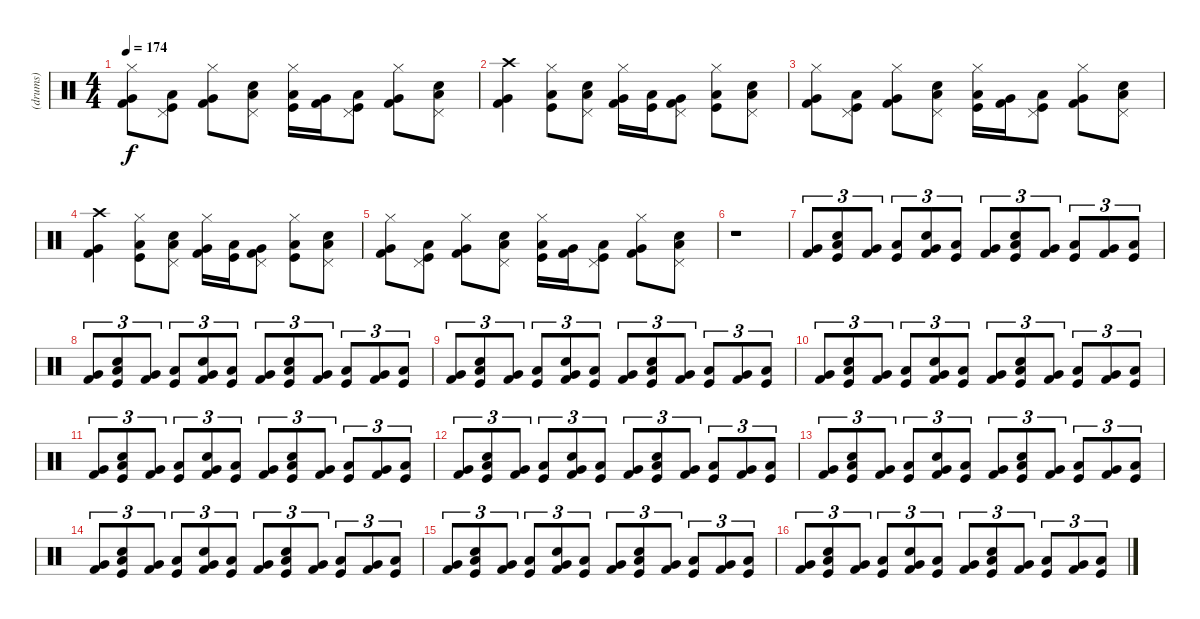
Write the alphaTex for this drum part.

\track ("(drums)" "(drums)") {instrument percussion}
\staff {score}
\articulation defaults
\ts (4 4)
\tempo 174
\clef neutral
\ks c
("Hi-Hat (closed)" "Kick (hit) 2" "Very Low Tom (hit)").8{dy f} ("Pedal Hi-Hat (hit)" "Kick (hit)" "Low Tom (hit)").8 ("Hi-Hat (closed)" "Kick (hit) 2" "Very Low Tom (hit)").8 ("Pedal Hi-Hat (hit)" "Snare (hit) 2" "Low Floor Tom (hit)").8 ("Hi-Hat (closed)" "Kick (hit)" "Low Tom (hit)").16 ("Kick (hit) 2" "Very Low Tom (hit)").16 ("Pedal Hi-Hat (hit)" "Kick (hit)" "Low Tom (hit)").8 ("Hi-Hat (closed)" "Kick (hit) 2" "Very Low Tom (hit)").8 ("Pedal Hi-Hat (hit)" "Snare (hit) 2" "Low Floor Tom (hit)").8 |
("Crash high (hit)" "Kick (hit) 2" "Very Low Tom (hit)").4 ("Hi-Hat (closed)" "Kick (hit)" "Low Tom (hit)").8 ("Pedal Hi-Hat (hit)" "Snare (hit) 2" "Low Floor Tom (hit)").8 ("Hi-Hat (closed)" "Kick (hit) 2" "Very Low Tom (hit)").16 ("Kick (hit)" "Low Tom (hit)").16 ("Pedal Hi-Hat (hit)" "Kick (hit) 2" "Very Low Tom (hit)").8 ("Hi-Hat (closed)" "Kick (hit)" "Low Tom (hit)").8 ("Pedal Hi-Hat (hit)" "Snare (hit) 2" "Low Floor Tom (hit)").8 |
("Hi-Hat (closed)" "Kick (hit) 2" "Very Low Tom (hit)").8 ("Pedal Hi-Hat (hit)" "Kick (hit)" "Low Tom (hit)").8 ("Hi-Hat (closed)" "Kick (hit) 2" "Very Low Tom (hit)").8 ("Pedal Hi-Hat (hit)" "Snare (hit) 2" "Low Floor Tom (hit)").8 ("Hi-Hat (closed)" "Kick (hit)" "Low Tom (hit)").16 ("Kick (hit) 2" "Very Low Tom (hit)").16 ("Pedal Hi-Hat (hit)" "Kick (hit)" "Low Tom (hit)").8 ("Hi-Hat (closed)" "Kick (hit) 2" "Very Low Tom (hit)").8 ("Pedal Hi-Hat (hit)" "Snare (hit) 2" "Low Floor Tom (hit)").8 |
("Crash high (hit)" "Kick (hit) 2" "Very Low Tom (hit)").4 ("Hi-Hat (closed)" "Kick (hit)" "Low Tom (hit)").8 ("Pedal Hi-Hat (hit)" "Snare (hit) 2" "Low Floor Tom (hit)").8 ("Hi-Hat (closed)" "Kick (hit) 2" "Very Low Tom (hit)").16 ("Kick (hit)" "Low Tom (hit)").16 ("Pedal Hi-Hat (hit)" "Kick (hit) 2" "Very Low Tom (hit)").8 ("Hi-Hat (closed)" "Kick (hit)" "Low Tom (hit)").8 ("Pedal Hi-Hat (hit)" "Snare (hit) 2" "Low Floor Tom (hit)").8 |
("Hi-Hat (closed)" "Kick (hit) 2" "Very Low Tom (hit)").8 ("Pedal Hi-Hat (hit)" "Kick (hit)" "Low Tom (hit)").8 ("Hi-Hat (closed)" "Kick (hit) 2" "Very Low Tom (hit)").8 ("Pedal Hi-Hat (hit)" "Snare (hit) 2" "Low Floor Tom (hit)").8 ("Hi-Hat (closed)" "Kick (hit)" "Low Tom (hit)").16 ("Kick (hit) 2" "Very Low Tom (hit)").16 ("Pedal Hi-Hat (hit)" "Kick (hit)" "Low Tom (hit)").8 ("Hi-Hat (closed)" "Kick (hit) 2" "Very Low Tom (hit)").8 ("Pedal Hi-Hat (hit)" "Snare (hit) 2" "Low Floor Tom (hit)").8 |
r.1 |
("Kick (hit) 2" "Very Low Tom (hit)").8{tu (3 2)} ("Electric Snare (hit)" "Kick (hit)" "Low Tom (hit)").8{tu (3 2)} ("Kick (hit) 2" "Very Low Tom (hit)").8{tu (3 2)} ("Kick (hit)" "Low Tom (hit)").8{tu (3 2)} ("Electric Snare (hit)" "Kick (hit) 2" "Very Low Tom (hit)").8{tu (3 2)} ("Kick (hit)" "Low Tom (hit)").8{tu (3 2)} ("Kick (hit) 2" "Very Low Tom (hit)").8{tu (3 2)} ("Electric Snare (hit)" "Kick (hit)" "Low Tom (hit)").8{tu (3 2)} ("Kick (hit) 2" "Very Low Tom (hit)").8{tu (3 2)} ("Kick (hit)" "Low Tom (hit)").8{tu (3 2)} ("Kick (hit) 2" "Very Low Tom (hit)").8{tu (3 2)} ("Kick (hit)" "Low Tom (hit)").8{tu (3 2)} |
("Kick (hit) 2" "Very Low Tom (hit)").8{tu (3 2)} ("Electric Snare (hit)" "Kick (hit)" "Low Tom (hit)").8{tu (3 2)} ("Kick (hit) 2" "Very Low Tom (hit)").8{tu (3 2)} ("Kick (hit)" "Low Tom (hit)").8{tu (3 2)} ("Electric Snare (hit)" "Kick (hit) 2" "Very Low Tom (hit)").8{tu (3 2)} ("Kick (hit)" "Low Tom (hit)").8{tu (3 2)} ("Kick (hit) 2" "Very Low Tom (hit)").8{tu (3 2)} ("Electric Snare (hit)" "Kick (hit)" "Low Tom (hit)").8{tu (3 2)} ("Kick (hit) 2" "Very Low Tom (hit)").8{tu (3 2)} ("Kick (hit)" "Low Tom (hit)").8{tu (3 2)} ("Kick (hit) 2" "Very Low Tom (hit)").8{tu (3 2)} ("Kick (hit)" "Low Tom (hit)").8{tu (3 2)} |
("Kick (hit) 2" "Very Low Tom (hit)").8{tu (3 2)} ("Electric Snare (hit)" "Kick (hit)" "Low Tom (hit)").8{tu (3 2)} ("Kick (hit) 2" "Very Low Tom (hit)").8{tu (3 2)} ("Kick (hit)" "Low Tom (hit)").8{tu (3 2)} ("Electric Snare (hit)" "Kick (hit) 2" "Very Low Tom (hit)").8{tu (3 2)} ("Kick (hit)" "Low Tom (hit)").8{tu (3 2)} ("Kick (hit) 2" "Very Low Tom (hit)").8{tu (3 2)} ("Electric Snare (hit)" "Kick (hit)" "Low Tom (hit)").8{tu (3 2)} ("Kick (hit) 2" "Very Low Tom (hit)").8{tu (3 2)} ("Kick (hit)" "Low Tom (hit)").8{tu (3 2)} ("Kick (hit) 2" "Very Low Tom (hit)").8{tu (3 2)} ("Kick (hit)" "Low Tom (hit)").8{tu (3 2)} |
("Kick (hit) 2" "Very Low Tom (hit)").8{tu (3 2)} ("Electric Snare (hit)" "Kick (hit)" "Low Tom (hit)").8{tu (3 2)} ("Kick (hit) 2" "Very Low Tom (hit)").8{tu (3 2)} ("Kick (hit)" "Low Tom (hit)").8{tu (3 2)} ("Electric Snare (hit)" "Kick (hit) 2" "Very Low Tom (hit)").8{tu (3 2)} ("Kick (hit)" "Low Tom (hit)").8{tu (3 2)} ("Kick (hit) 2" "Very Low Tom (hit)").8{tu (3 2)} ("Electric Snare (hit)" "Kick (hit)" "Low Tom (hit)").8{tu (3 2)} ("Kick (hit) 2" "Very Low Tom (hit)").8{tu (3 2)} ("Kick (hit)" "Low Tom (hit)").8{tu (3 2)} ("Kick (hit) 2" "Very Low Tom (hit)").8{tu (3 2)} ("Kick (hit)" "Low Tom (hit)").8{tu (3 2)} |
("Kick (hit) 2" "Very Low Tom (hit)").8{tu (3 2)} ("Electric Snare (hit)" "Kick (hit)" "Low Tom (hit)").8{tu (3 2)} ("Kick (hit) 2" "Very Low Tom (hit)").8{tu (3 2)} ("Kick (hit)" "Low Tom (hit)").8{tu (3 2)} ("Electric Snare (hit)" "Kick (hit) 2" "Very Low Tom (hit)").8{tu (3 2)} ("Kick (hit)" "Low Tom (hit)").8{tu (3 2)} ("Kick (hit) 2" "Very Low Tom (hit)").8{tu (3 2)} ("Electric Snare (hit)" "Kick (hit)" "Low Tom (hit)").8{tu (3 2)} ("Kick (hit) 2" "Very Low Tom (hit)").8{tu (3 2)} ("Kick (hit)" "Low Tom (hit)").8{tu (3 2)} ("Kick (hit) 2" "Very Low Tom (hit)").8{tu (3 2)} ("Kick (hit)" "Low Tom (hit)").8{tu (3 2)} |
("Kick (hit) 2" "Very Low Tom (hit)").8{tu (3 2)} ("Electric Snare (hit)" "Kick (hit)" "Low Tom (hit)").8{tu (3 2)} ("Kick (hit) 2" "Very Low Tom (hit)").8{tu (3 2)} ("Kick (hit)" "Low Tom (hit)").8{tu (3 2)} ("Electric Snare (hit)" "Kick (hit) 2" "Very Low Tom (hit)").8{tu (3 2)} ("Kick (hit)" "Low Tom (hit)").8{tu (3 2)} ("Kick (hit) 2" "Very Low Tom (hit)").8{tu (3 2)} ("Electric Snare (hit)" "Kick (hit)" "Low Tom (hit)").8{tu (3 2)} ("Kick (hit) 2" "Very Low Tom (hit)").8{tu (3 2)} ("Kick (hit)" "Low Tom (hit)").8{tu (3 2)} ("Kick (hit) 2" "Very Low Tom (hit)").8{tu (3 2)} ("Kick (hit)" "Low Tom (hit)").8{tu (3 2)} |
("Kick (hit) 2" "Very Low Tom (hit)").8{tu (3 2)} ("Electric Snare (hit)" "Kick (hit)" "Low Tom (hit)").8{tu (3 2)} ("Kick (hit) 2" "Very Low Tom (hit)").8{tu (3 2)} ("Kick (hit)" "Low Tom (hit)").8{tu (3 2)} ("Electric Snare (hit)" "Kick (hit) 2" "Very Low Tom (hit)").8{tu (3 2)} ("Kick (hit)" "Low Tom (hit)").8{tu (3 2)} ("Kick (hit) 2" "Very Low Tom (hit)").8{tu (3 2)} ("Electric Snare (hit)" "Kick (hit)" "Low Tom (hit)").8{tu (3 2)} ("Kick (hit) 2" "Very Low Tom (hit)").8{tu (3 2)} ("Kick (hit)" "Low Tom (hit)").8{tu (3 2)} ("Kick (hit) 2" "Very Low Tom (hit)").8{tu (3 2)} ("Kick (hit)" "Low Tom (hit)").8{tu (3 2)} |
("Kick (hit) 2" "Very Low Tom (hit)").8{tu (3 2)} ("Electric Snare (hit)" "Kick (hit)" "Low Tom (hit)").8{tu (3 2)} ("Kick (hit) 2" "Very Low Tom (hit)").8{tu (3 2)} ("Kick (hit)" "Low Tom (hit)").8{tu (3 2)} ("Electric Snare (hit)" "Kick (hit) 2" "Very Low Tom (hit)").8{tu (3 2)} ("Kick (hit)" "Low Tom (hit)").8{tu (3 2)} ("Kick (hit) 2" "Very Low Tom (hit)").8{tu (3 2)} ("Electric Snare (hit)" "Kick (hit)" "Low Tom (hit)").8{tu (3 2)} ("Kick (hit) 2" "Very Low Tom (hit)").8{tu (3 2)} ("Kick (hit)" "Low Tom (hit)").8{tu (3 2)} ("Kick (hit) 2" "Very Low Tom (hit)").8{tu (3 2)} ("Kick (hit)" "Low Tom (hit)").8{tu (3 2)} |
("Kick (hit) 2" "Very Low Tom (hit)").8{tu (3 2)} ("Electric Snare (hit)" "Kick (hit)" "Low Tom (hit)").8{tu (3 2)} ("Kick (hit) 2" "Very Low Tom (hit)").8{tu (3 2)} ("Kick (hit)" "Low Tom (hit)").8{tu (3 2)} ("Electric Snare (hit)" "Kick (hit) 2" "Very Low Tom (hit)").8{tu (3 2)} ("Kick (hit)" "Low Tom (hit)").8{tu (3 2)} ("Kick (hit) 2" "Very Low Tom (hit)").8{tu (3 2)} ("Electric Snare (hit)" "Kick (hit)" "Low Tom (hit)").8{tu (3 2)} ("Kick (hit) 2" "Very Low Tom (hit)").8{tu (3 2)} ("Kick (hit)" "Low Tom (hit)").8{tu (3 2)} ("Kick (hit) 2" "Very Low Tom (hit)").8{tu (3 2)} ("Kick (hit)" "Low Tom (hit)").8{tu (3 2)} |
("Kick (hit) 2" "Very Low Tom (hit)").8{tu (3 2)} ("Electric Snare (hit)" "Kick (hit)" "Low Tom (hit)").8{tu (3 2)} ("Kick (hit) 2" "Very Low Tom (hit)").8{tu (3 2)} ("Kick (hit)" "Low Tom (hit)").8{tu (3 2)} ("Electric Snare (hit)" "Kick (hit) 2" "Very Low Tom (hit)").8{tu (3 2)} ("Kick (hit)" "Low Tom (hit)").8{tu (3 2)} ("Kick (hit) 2" "Very Low Tom (hit)").8{tu (3 2)} ("Electric Snare (hit)" "Kick (hit)" "Low Tom (hit)").8{tu (3 2)} ("Kick (hit) 2" "Very Low Tom (hit)").8{tu (3 2)} ("Kick (hit)" "Low Tom (hit)").8{tu (3 2)} ("Kick (hit) 2" "Very Low Tom (hit)").8{tu (3 2)} ("Kick (hit)" "Low Tom (hit)").8{tu (3 2)}
